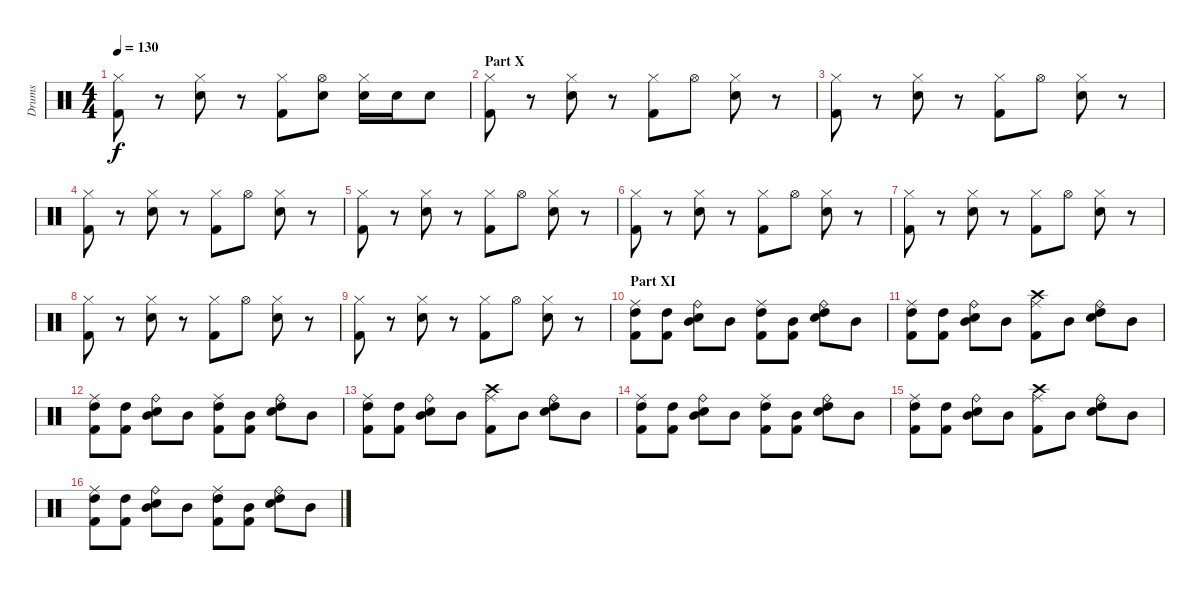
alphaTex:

\track ("Drums" "Drums") {instrument percussion}
\staff {score}
\articulation defaults
\ts (4 4)
\tempo 130
\clef neutral
\ks c
("Kick (hit) 2" "Hi-Hat (closed)").8{dy f} r.8 ("Snare (hit) 2" "Hi-Hat (closed)").8 r.8 ("Kick (hit) 2" "Hi-Hat (closed)").8 ("Electric Snare (hit)" "Hi-Hat (open)").8 ("Snare (hit) 2" "Hi-Hat (closed)").16 "Electric Snare (hit)".16 "Electric Snare (hit)".8 |
\section ("" "Part X")
("Kick (hit) 2" "Hi-Hat (closed)").8 r.8 ("Snare (hit) 2" "Hi-Hat (closed)").8 r.8 ("Kick (hit) 2" "Hi-Hat (closed)").8 "Hi-Hat (open)".8 ("Snare (hit) 2" "Hi-Hat (closed)").8 r.8 |
("Kick (hit) 2" "Hi-Hat (closed)").8 r.8 ("Snare (hit) 2" "Hi-Hat (closed)").8 r.8 ("Kick (hit) 2" "Hi-Hat (closed)").8 "Hi-Hat (open)".8 ("Snare (hit) 2" "Hi-Hat (closed)").8 r.8 |
("Kick (hit) 2" "Hi-Hat (closed)").8 r.8 ("Snare (hit) 2" "Hi-Hat (closed)").8 r.8 ("Kick (hit) 2" "Hi-Hat (closed)").8 "Hi-Hat (open)".8 ("Snare (hit) 2" "Hi-Hat (closed)").8 r.8 |
("Kick (hit) 2" "Hi-Hat (closed)").8 r.8 ("Snare (hit) 2" "Hi-Hat (closed)").8 r.8 ("Kick (hit) 2" "Hi-Hat (closed)").8 "Hi-Hat (open)".8 ("Snare (hit) 2" "Hi-Hat (closed)").8 r.8 |
("Kick (hit) 2" "Hi-Hat (closed)").8 r.8 ("Snare (hit) 2" "Hi-Hat (closed)").8 r.8 ("Kick (hit) 2" "Hi-Hat (closed)").8 "Hi-Hat (open)".8 ("Snare (hit) 2" "Hi-Hat (closed)").8 r.8 |
("Kick (hit) 2" "Hi-Hat (closed)").8 r.8 ("Snare (hit) 2" "Hi-Hat (closed)").8 r.8 ("Kick (hit) 2" "Hi-Hat (closed)").8 "Hi-Hat (open)".8 ("Snare (hit) 2" "Hi-Hat (closed)").8 r.8 |
("Kick (hit) 2" "Hi-Hat (closed)").8 r.8 ("Snare (hit) 2" "Hi-Hat (closed)").8 r.8 ("Kick (hit) 2" "Hi-Hat (closed)").8 "Hi-Hat (open)".8 ("Snare (hit) 2" "Hi-Hat (closed)").8 r.8 |
("Kick (hit) 2" "Hi-Hat (closed)").8 r.8 ("Snare (hit) 2" "Hi-Hat (closed)").8 r.8 ("Kick (hit) 2" "Hi-Hat (closed)").8 "Hi-Hat (open)".8 ("Snare (hit) 2" "Hi-Hat (closed)").8 r.8 |
\section ("" "Part XI")
("Kick (hit) 2" "High Tom (hit)" "Ride (middle)").8 ("Kick (hit) 2" "High Tom (hit)").8 ("Snare (hit) 2" "Mid Tom (hit)" "Ride (bell)").8 "Mid Tom (hit)".8 ("Kick (hit) 2" "High Tom (hit)" "Ride (middle)").8 ("Kick (hit) 2" "Mid Tom (hit)").8 ("Snare (hit) 2" "High Tom (hit)" "Ride (bell)").8 "Mid Tom (hit)".8 |
("Kick (hit) 2" "High Tom (hit)" "Ride (middle)").8 ("Kick (hit) 2" "High Tom (hit)").8 ("Snare (hit) 2" "Mid Tom (hit)" "Ride (bell)").8 "Mid Tom (hit)".8 ("Kick (hit) 2" "Crash high (hit)" "Ride (middle)").8 "Mid Tom (hit)".8 ("Snare (hit) 2" "High Tom (hit)" "Ride (bell)").8 "Mid Tom (hit)".8 |
("Kick (hit) 2" "High Tom (hit)" "Ride (middle)").8 ("Kick (hit) 2" "High Tom (hit)").8 ("Snare (hit) 2" "Mid Tom (hit)" "Ride (bell)").8 "Mid Tom (hit)".8 ("Kick (hit) 2" "High Tom (hit)" "Ride (middle)").8 ("Kick (hit) 2" "Mid Tom (hit)").8 ("Snare (hit) 2" "High Tom (hit)" "Ride (bell)").8 "Mid Tom (hit)".8 |
("Kick (hit) 2" "High Tom (hit)" "Ride (middle)").8 ("Kick (hit) 2" "High Tom (hit)").8 ("Snare (hit) 2" "Mid Tom (hit)" "Ride (bell)").8 "Mid Tom (hit)".8 ("Kick (hit) 2" "Crash high (hit)" "Ride (middle)").8 "Mid Tom (hit)".8 ("Snare (hit) 2" "High Tom (hit)" "Ride (bell)").8 "Mid Tom (hit)".8 |
("Kick (hit) 2" "High Tom (hit)" "Ride (middle)").8 ("Kick (hit) 2" "High Tom (hit)").8 ("Snare (hit) 2" "Mid Tom (hit)" "Ride (bell)").8 "Mid Tom (hit)".8 ("Kick (hit) 2" "High Tom (hit)" "Ride (middle)").8 ("Kick (hit) 2" "Mid Tom (hit)").8 ("Snare (hit) 2" "High Tom (hit)" "Ride (bell)").8 "Mid Tom (hit)".8 |
("Kick (hit) 2" "High Tom (hit)" "Ride (middle)").8 ("Kick (hit) 2" "High Tom (hit)").8 ("Snare (hit) 2" "Mid Tom (hit)" "Ride (bell)").8 "Mid Tom (hit)".8 ("Kick (hit) 2" "Crash high (hit)" "Ride (middle)").8 "Mid Tom (hit)".8 ("Snare (hit) 2" "High Tom (hit)" "Ride (bell)").8 "Mid Tom (hit)".8 |
("Kick (hit) 2" "High Tom (hit)" "Ride (middle)").8 ("Kick (hit) 2" "High Tom (hit)").8 ("Snare (hit) 2" "Mid Tom (hit)" "Ride (bell)").8 "Mid Tom (hit)".8 ("Kick (hit) 2" "High Tom (hit)" "Ride (middle)").8 ("Kick (hit) 2" "Mid Tom (hit)").8 ("Snare (hit) 2" "High Tom (hit)" "Ride (bell)").8 "Mid Tom (hit)".8
